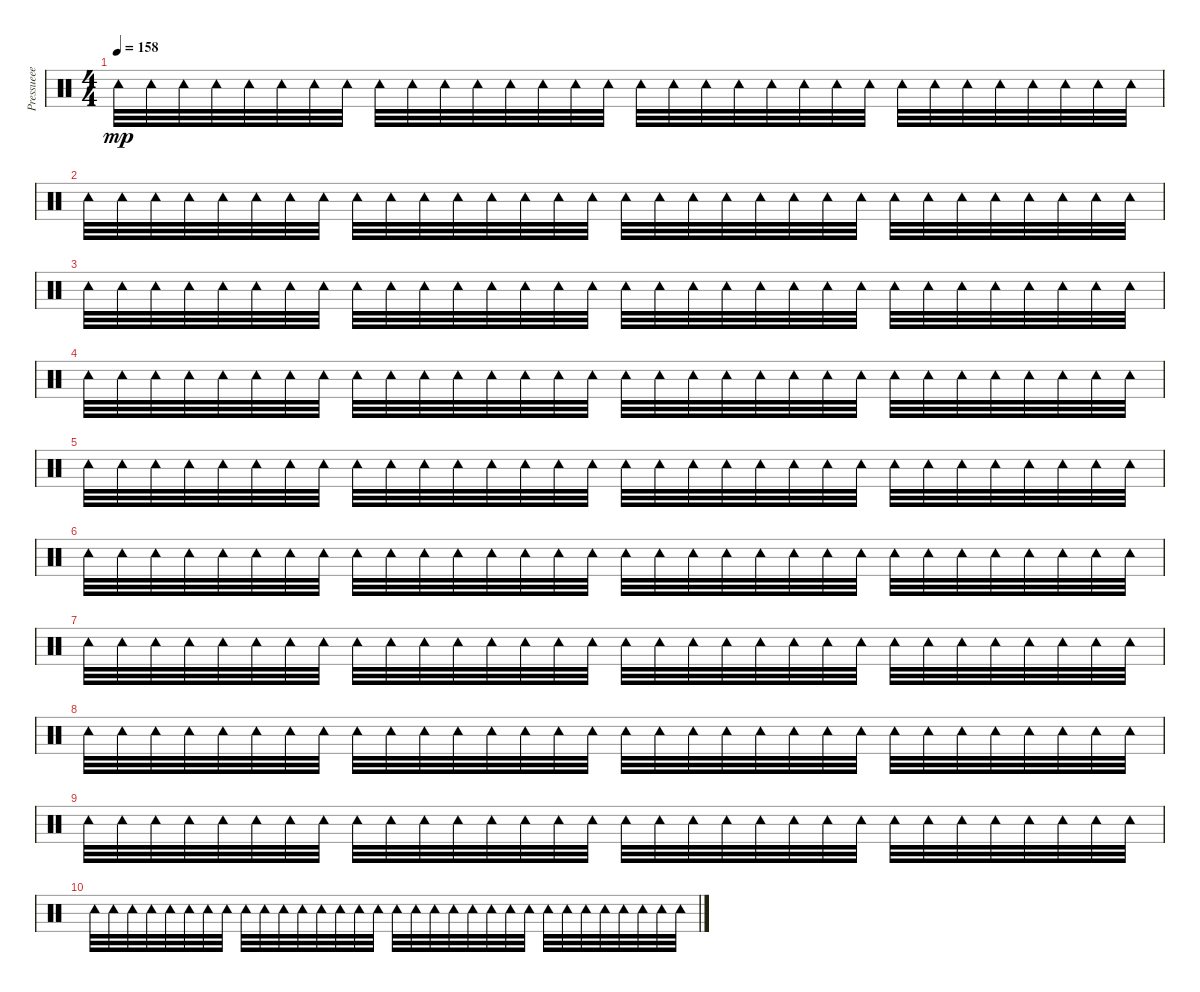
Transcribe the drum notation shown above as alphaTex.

\track ("Pressueee " "Pressueee ") {instrument percussion}
\staff {score}
\articulation defaults
\ts (4 4)
\tempo 158
\clef neutral
\ks c "Tambourine (hit)".32{dy mp} "Tambourine (hit)".32 "Tambourine (hit)".32 "Tambourine (hit)".32 "Tambourine (hit)".32 "Tambourine (hit)".32 "Tambourine (hit)".32 "Tambourine (hit)".32 "Tambourine (hit)".32 "Tambourine (hit)".32 "Tambourine (hit)".32 "Tambourine (hit)".32 "Tambourine (hit)".32 "Tambourine (hit)".32 "Tambourine (hit)".32 "Tambourine (hit)".32 "Tambourine (hit)".32 "Tambourine (hit)".32 "Tambourine (hit)".32 "Tambourine (hit)".32 "Tambourine (hit)".32 "Tambourine (hit)".32 "Tambourine (hit)".32 "Tambourine (hit)".32 "Tambourine (hit)".32 "Tambourine (hit)".32 "Tambourine (hit)".32 "Tambourine (hit)".32 "Tambourine (hit)".32 "Tambourine (hit)".32 "Tambourine (hit)".32 "Tambourine (hit)".32
|
"Tambourine (hit)".32 "Tambourine (hit)".32 "Tambourine (hit)".32 "Tambourine (hit)".32 "Tambourine (hit)".32 "Tambourine (hit)".32 "Tambourine (hit)".32 "Tambourine (hit)".32 "Tambourine (hit)".32 "Tambourine (hit)".32 "Tambourine (hit)".32 "Tambourine (hit)".32 "Tambourine (hit)".32 "Tambourine (hit)".32 "Tambourine (hit)".32 "Tambourine (hit)".32 "Tambourine (hit)".32 "Tambourine (hit)".32 "Tambourine (hit)".32 "Tambourine (hit)".32 "Tambourine (hit)".32 "Tambourine (hit)".32 "Tambourine (hit)".32 "Tambourine (hit)".32 "Tambourine (hit)".32 "Tambourine (hit)".32 "Tambourine (hit)".32 "Tambourine (hit)".32 "Tambourine (hit)".32 "Tambourine (hit)".32 "Tambourine (hit)".32 "Tambourine (hit)".32 |
"Tambourine (hit)".32 "Tambourine (hit)".32 "Tambourine (hit)".32 "Tambourine (hit)".32 "Tambourine (hit)".32 "Tambourine (hit)".32 "Tambourine (hit)".32 "Tambourine (hit)".32 "Tambourine (hit)".32 "Tambourine (hit)".32 "Tambourine (hit)".32 "Tambourine (hit)".32 "Tambourine (hit)".32 "Tambourine (hit)".32 "Tambourine (hit)".32 "Tambourine (hit)".32 "Tambourine (hit)".32 "Tambourine (hit)".32 "Tambourine (hit)".32 "Tambourine (hit)".32 "Tambourine (hit)".32 "Tambourine (hit)".32 "Tambourine (hit)".32 "Tambourine (hit)".32 "Tambourine (hit)".32 "Tambourine (hit)".32 "Tambourine (hit)".32 "Tambourine (hit)".32 "Tambourine (hit)".32 "Tambourine (hit)".32 "Tambourine (hit)".32 "Tambourine (hit)".32 |
"Tambourine (hit)".32 "Tambourine (hit)".32 "Tambourine (hit)".32 "Tambourine (hit)".32 "Tambourine (hit)".32 "Tambourine (hit)".32 "Tambourine (hit)".32 "Tambourine (hit)".32 "Tambourine (hit)".32 "Tambourine (hit)".32 "Tambourine (hit)".32 "Tambourine (hit)".32 "Tambourine (hit)".32 "Tambourine (hit)".32 "Tambourine (hit)".32 "Tambourine (hit)".32 "Tambourine (hit)".32 "Tambourine (hit)".32 "Tambourine (hit)".32 "Tambourine (hit)".32 "Tambourine (hit)".32 "Tambourine (hit)".32 "Tambourine (hit)".32 "Tambourine (hit)".32 "Tambourine (hit)".32 "Tambourine (hit)".32 "Tambourine (hit)".32 "Tambourine (hit)".32 "Tambourine (hit)".32 "Tambourine (hit)".32 "Tambourine (hit)".32 "Tambourine (hit)".32 |
"Tambourine (hit)".32 "Tambourine (hit)".32 "Tambourine (hit)".32 "Tambourine (hit)".32 "Tambourine (hit)".32 "Tambourine (hit)".32 "Tambourine (hit)".32 "Tambourine (hit)".32 "Tambourine (hit)".32 "Tambourine (hit)".32 "Tambourine (hit)".32 "Tambourine (hit)".32 "Tambourine (hit)".32 "Tambourine (hit)".32 "Tambourine (hit)".32 "Tambourine (hit)".32 "Tambourine (hit)".32 "Tambourine (hit)".32 "Tambourine (hit)".32 "Tambourine (hit)".32 "Tambourine (hit)".32 "Tambourine (hit)".32 "Tambourine (hit)".32 "Tambourine (hit)".32 "Tambourine (hit)".32 "Tambourine (hit)".32 "Tambourine (hit)".32 "Tambourine (hit)".32 "Tambourine (hit)".32 "Tambourine (hit)".32 "Tambourine (hit)".32 "Tambourine (hit)".32 |
"Tambourine (hit)".32 "Tambourine (hit)".32 "Tambourine (hit)".32 "Tambourine (hit)".32 "Tambourine (hit)".32 "Tambourine (hit)".32 "Tambourine (hit)".32 "Tambourine (hit)".32 "Tambourine (hit)".32 "Tambourine (hit)".32 "Tambourine (hit)".32 "Tambourine (hit)".32 "Tambourine (hit)".32 "Tambourine (hit)".32 "Tambourine (hit)".32 "Tambourine (hit)".32 "Tambourine (hit)".32 "Tambourine (hit)".32 "Tambourine (hit)".32 "Tambourine (hit)".32 "Tambourine (hit)".32 "Tambourine (hit)".32 "Tambourine (hit)".32 "Tambourine (hit)".32 "Tambourine (hit)".32 "Tambourine (hit)".32 "Tambourine (hit)".32 "Tambourine (hit)".32 "Tambourine (hit)".32 "Tambourine (hit)".32 "Tambourine (hit)".32 "Tambourine (hit)".32 |
"Tambourine (hit)".32 "Tambourine (hit)".32 "Tambourine (hit)".32 "Tambourine (hit)".32 "Tambourine (hit)".32 "Tambourine (hit)".32 "Tambourine (hit)".32 "Tambourine (hit)".32 "Tambourine (hit)".32 "Tambourine (hit)".32 "Tambourine (hit)".32 "Tambourine (hit)".32 "Tambourine (hit)".32 "Tambourine (hit)".32 "Tambourine (hit)".32 "Tambourine (hit)".32 "Tambourine (hit)".32 "Tambourine (hit)".32 "Tambourine (hit)".32 "Tambourine (hit)".32 "Tambourine (hit)".32 "Tambourine (hit)".32 "Tambourine (hit)".32 "Tambourine (hit)".32 "Tambourine (hit)".32 "Tambourine (hit)".32 "Tambourine (hit)".32 "Tambourine (hit)".32 "Tambourine (hit)".32 "Tambourine (hit)".32 "Tambourine (hit)".32 "Tambourine (hit)".32 |
"Tambourine (hit)".32 "Tambourine (hit)".32 "Tambourine (hit)".32 "Tambourine (hit)".32 "Tambourine (hit)".32 "Tambourine (hit)".32 "Tambourine (hit)".32 "Tambourine (hit)".32 "Tambourine (hit)".32 "Tambourine (hit)".32 "Tambourine (hit)".32 "Tambourine (hit)".32 "Tambourine (hit)".32 "Tambourine (hit)".32 "Tambourine (hit)".32 "Tambourine (hit)".32 "Tambourine (hit)".32 "Tambourine (hit)".32 "Tambourine (hit)".32 "Tambourine (hit)".32 "Tambourine (hit)".32 "Tambourine (hit)".32 "Tambourine (hit)".32 "Tambourine (hit)".32 "Tambourine (hit)".32 "Tambourine (hit)".32 "Tambourine (hit)".32 "Tambourine (hit)".32 "Tambourine (hit)".32 "Tambourine (hit)".32 "Tambourine (hit)".32 "Tambourine (hit)".32 |
"Tambourine (hit)".32 "Tambourine (hit)".32 "Tambourine (hit)".32 "Tambourine (hit)".32 "Tambourine (hit)".32 "Tambourine (hit)".32 "Tambourine (hit)".32 "Tambourine (hit)".32 "Tambourine (hit)".32 "Tambourine (hit)".32 "Tambourine (hit)".32 "Tambourine (hit)".32 "Tambourine (hit)".32 "Tambourine (hit)".32 "Tambourine (hit)".32 "Tambourine (hit)".32 "Tambourine (hit)".32 "Tambourine (hit)".32 "Tambourine (hit)".32 "Tambourine (hit)".32 "Tambourine (hit)".32 "Tambourine (hit)".32 "Tambourine (hit)".32 "Tambourine (hit)".32 "Tambourine (hit)".32 "Tambourine (hit)".32 "Tambourine (hit)".32 "Tambourine (hit)".32 "Tambourine (hit)".32 "Tambourine (hit)".32 "Tambourine (hit)".32 "Tambourine (hit)".32 |
"Tambourine (hit)".32 "Tambourine (hit)".32 "Tambourine (hit)".32 "Tambourine (hit)".32 "Tambourine (hit)".32 "Tambourine (hit)".32 "Tambourine (hit)".32 "Tambourine (hit)".32 "Tambourine (hit)".32 "Tambourine (hit)".32 "Tambourine (hit)".32 "Tambourine (hit)".32 "Tambourine (hit)".32 "Tambourine (hit)".32 "Tambourine (hit)".32 "Tambourine (hit)".32 "Tambourine (hit)".32 "Tambourine (hit)".32 "Tambourine (hit)".32 "Tambourine (hit)".32 "Tambourine (hit)".32 "Tambourine (hit)".32 "Tambourine (hit)".32 "Tambourine (hit)".32 "Tambourine (hit)".32 "Tambourine (hit)".32 "Tambourine (hit)".32 "Tambourine (hit)".32 "Tambourine (hit)".32 "Tambourine (hit)".32 "Tambourine (hit)".32 "Tambourine (hit)".32
